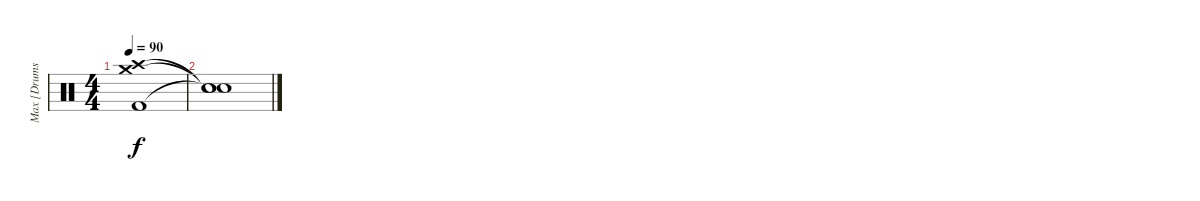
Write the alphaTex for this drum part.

\track ("Max [Drums]" "Max [Drums") {instrument percussion}
\staff {score}
\articulation defaults
\ts (4 4)
\tempo 90
\clef neutral
\ks c
("Crash medium (hit)" "Crash high (hit)" "Kick (hit) 2").1{dy f} |
("Snare (hit)"{t} "Snare (hit)"{t} "Snare (hit)"{t}).1
